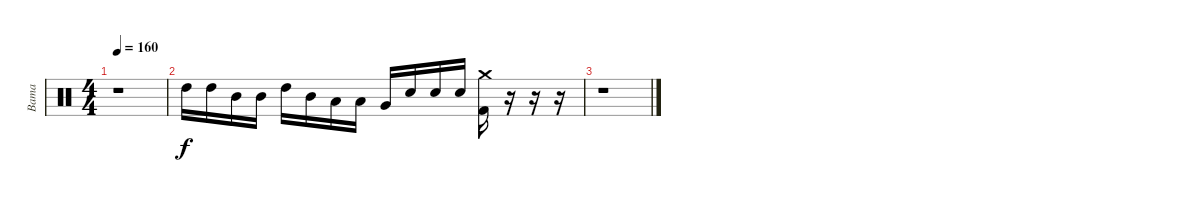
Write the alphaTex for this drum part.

\track ("Bama" "Bama") {instrument percussion}
\staff {score}
\articulation defaults
\ts (4 4)
\tempo 160
\clef neutral
\ks c
r.1{dy f} |
"High Tom (hit)".16{volume 0} "High Tom (hit)".16 "Mid Tom (hit)".16{volume 2} "Mid Tom (hit)".16 "High Tom (hit)".16{volume 4} "Mid Tom (hit)".16 "Low Tom (hit)".16{volume 7} "Low Tom (hit)".16 "Very Low Tom (hit)".16{volume 9} "Electric Snare (hit)".16 "Electric Snare (hit)".16{volume 12} "Electric Snare (hit)".16 ("Crash medium (hit)" "Kick (hit) 2").16{volume 15} r.16 r.16 r.16 |
r.1
